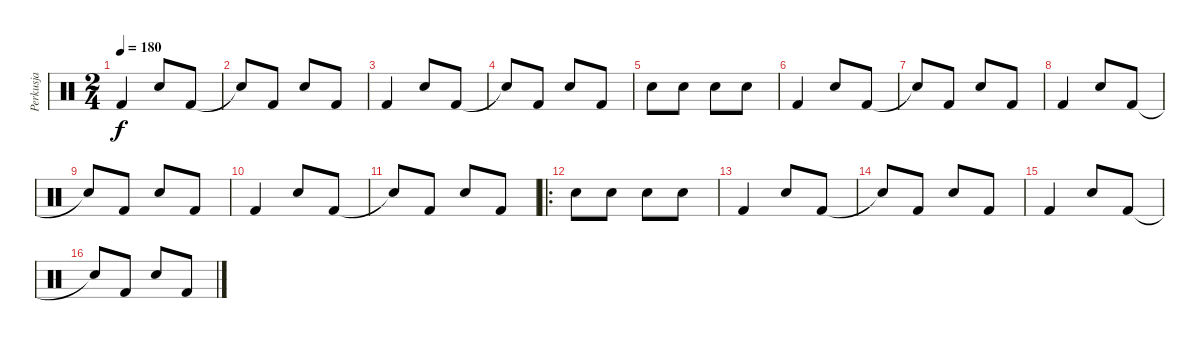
\track ("Perkusja" "Perkusja") {instrument percussion}
\staff {score}
\articulation defaults
\ts (2 4)
\tempo 180
\clef neutral
\ks c "Kick (hit) 2".4{dy f} "Snare (hit) 2".8 "Kick (hit) 2".8
|
"Snare (hit)"{t}.8 "Kick (hit) 2".8 "Snare (hit) 2".8 "Kick (hit) 2".8 |
"Kick (hit) 2".4 "Snare (hit) 2".8 "Kick (hit) 2".8 |
"Snare (hit)"{t}.8 "Kick (hit) 2".8 "Snare (hit) 2".8 "Kick (hit) 2".8 |
"Snare (hit) 2".8 "Snare (hit) 2".8 "Snare (hit) 2".8 "Snare (hit) 2".8 |
"Kick (hit) 2".4 "Snare (hit) 2".8 "Kick (hit) 2".8 |
"Snare (hit)"{t}.8 "Kick (hit) 2".8 "Snare (hit) 2".8 "Kick (hit) 2".8 |
"Kick (hit) 2".4 "Snare (hit) 2".8 "Kick (hit) 2".8 |
"Snare (hit)"{t}.8 "Kick (hit) 2".8 "Snare (hit) 2".8 "Kick (hit) 2".8 |
"Kick (hit) 2".4 "Snare (hit) 2".8 "Kick (hit) 2".8 |
"Snare (hit)"{t}.8 "Kick (hit) 2".8 "Snare (hit) 2".8 "Kick (hit) 2".8 |
\ro "Snare (hit) 2".8 "Snare (hit) 2".8 "Snare (hit) 2".8 "Snare (hit) 2".8
|
"Kick (hit) 2".4 "Snare (hit) 2".8 "Kick (hit) 2".8 |
"Snare (hit)"{t}.8 "Kick (hit) 2".8 "Snare (hit) 2".8 "Kick (hit) 2".8 |
"Kick (hit) 2".4 "Snare (hit) 2".8 "Kick (hit) 2".8 |
"Snare (hit)"{t}.8 "Kick (hit) 2".8 "Snare (hit) 2".8 "Kick (hit) 2".8
